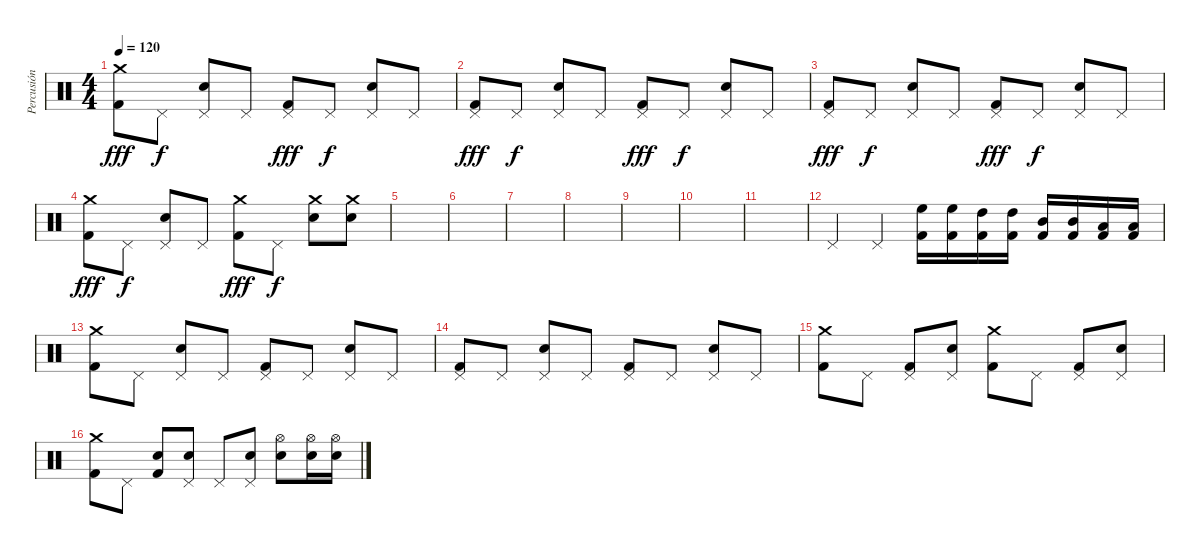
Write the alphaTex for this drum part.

\track ("Percusión" "Percusión") {instrument percussion}
\staff {score}
\articulation defaults
\ts (4 4)
\tempo 120
\clef neutral
\ks c
("Crash medium (hit)" "Kick (hit) 2").8{dy fff} "Pedal Hi-Hat (hit)".8{dy f} ("Pedal Hi-Hat (hit)" "Electric Snare (hit)").8 "Pedal Hi-Hat (hit)".8 ("Pedal Hi-Hat (hit)" "Kick (hit) 2").8{dy fff} "Pedal Hi-Hat (hit)".8{dy f} ("Pedal Hi-Hat (hit)" "Electric Snare (hit)").8 "Pedal Hi-Hat (hit)".8 |
("Pedal Hi-Hat (hit)" "Kick (hit) 2").8{dy fff} "Pedal Hi-Hat (hit)".8{dy f} ("Pedal Hi-Hat (hit)" "Electric Snare (hit)").8 "Pedal Hi-Hat (hit)".8 ("Pedal Hi-Hat (hit)" "Kick (hit) 2").8{dy fff} "Pedal Hi-Hat (hit)".8{dy f} ("Pedal Hi-Hat (hit)" "Electric Snare (hit)").8 "Pedal Hi-Hat (hit)".8 |
("Pedal Hi-Hat (hit)" "Kick (hit) 2").8{dy fff} "Pedal Hi-Hat (hit)".8{dy f} ("Pedal Hi-Hat (hit)" "Electric Snare (hit)").8 "Pedal Hi-Hat (hit)".8 ("Pedal Hi-Hat (hit)" "Kick (hit) 2").8{dy fff} "Pedal Hi-Hat (hit)".8{dy f} ("Pedal Hi-Hat (hit)" "Electric Snare (hit)").8 "Pedal Hi-Hat (hit)".8 |
("Crash medium (hit)" "Kick (hit) 2").8{dy fff} "Pedal Hi-Hat (hit)".8{dy f} ("Pedal Hi-Hat (hit)" "Electric Snare (hit)").8 "Pedal Hi-Hat (hit)".8 ("Crash medium (hit)" "Kick (hit) 2").8{dy fff} "Pedal Hi-Hat (hit)".8{dy f} ("Crash medium (hit)" "Electric Snare (hit)").8 ("Crash medium (hit)" "Electric Snare (hit)").8 |
|
|
|
|
|
|
|
"Pedal Hi-Hat (hit)".4 "Pedal Hi-Hat (hit)".4 ("High Floor Tom (hit)" "Kick (hit) 2").16 ("High Floor Tom (hit)" "Kick (hit) 2").16 ("High Tom (hit)" "Kick (hit) 2").16 ("High Tom (hit)" "Kick (hit) 2").16 ("Mid Tom (hit)" "Kick (hit) 2").16 ("Mid Tom (hit)" "Kick (hit) 2").16 ("Low Tom (hit)" "Kick (hit) 2").16 ("Low Tom (hit)" "Kick (hit) 2").16 |
("Crash medium (hit)" "Kick (hit) 2").8 "Pedal Hi-Hat (hit)".8 ("Pedal Hi-Hat (hit)" "Electric Snare (hit)").8 "Pedal Hi-Hat (hit)".8 ("Pedal Hi-Hat (hit)" "Kick (hit) 2").8 "Pedal Hi-Hat (hit)".8 ("Pedal Hi-Hat (hit)" "Electric Snare (hit)").8 "Pedal Hi-Hat (hit)".8 |
("Pedal Hi-Hat (hit)" "Kick (hit) 2").8 "Pedal Hi-Hat (hit)".8 ("Pedal Hi-Hat (hit)" "Electric Snare (hit)").8 "Pedal Hi-Hat (hit)".8 ("Pedal Hi-Hat (hit)" "Kick (hit) 2").8 "Pedal Hi-Hat (hit)".8 ("Pedal Hi-Hat (hit)" "Electric Snare (hit)").8 "Pedal Hi-Hat (hit)".8 |
("Crash medium (hit)" "Kick (hit) 2").8 "Pedal Hi-Hat (hit)".8 ("Pedal Hi-Hat (hit)" "Kick (hit) 2").8 ("Pedal Hi-Hat (hit)" "Electric Snare (hit)").8 ("Crash medium (hit)" "Kick (hit) 2").8 "Pedal Hi-Hat (hit)".8 ("Pedal Hi-Hat (hit)" "Kick (hit) 2").8 ("Pedal Hi-Hat (hit)" "Electric Snare (hit)").8 |
("Crash medium (hit)" "Kick (hit) 2").8 "Pedal Hi-Hat (hit)".8 ("Electric Snare (hit)" "Kick (hit) 2").8 ("Pedal Hi-Hat (hit)" "Electric Snare (hit)").8 "Pedal Hi-Hat (hit)".8 ("Pedal Hi-Hat (hit)" "Electric Snare (hit)").8 ("Hi-Hat (open)" "Electric Snare (hit)").8 ("Hi-Hat (open)" "Electric Snare (hit)").16 ("Hi-Hat (open)" "Electric Snare (hit)").16
